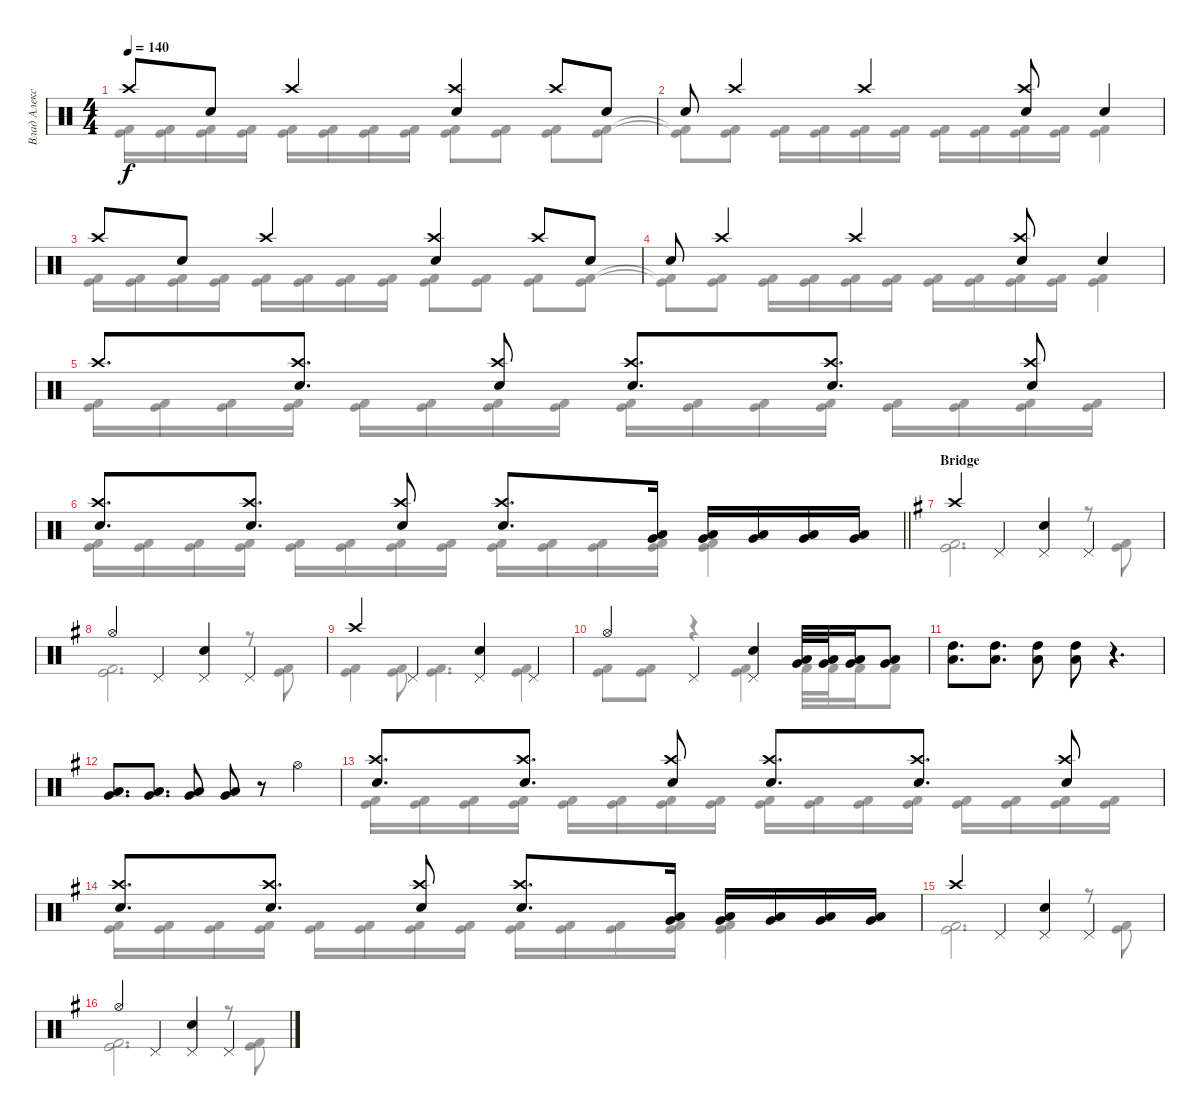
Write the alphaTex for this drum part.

\track ("Влад Алексеенко" "Влад Алекс") {instrument percussion}
\staff {score}
\articulation defaults
\voice
\ts (4 4)
\tempo 140
\clef neutral
\ks c "Crash high (hit)".8{dy f} "Electric Snare (hit)".8 "Crash high (hit)".4
("Electric Snare (hit)" "Crash high (hit)").4 "Crash high (hit)".8 "Electric Snare (hit)".8 |
"Electric Snare (hit)".8 "Crash high (hit)".4 "Crash high (hit)".4 ("Electric Snare (hit)" "Crash high (hit)").8 "Electric Snare (hit)".4 |
"Crash high (hit)".8 "Electric Snare (hit)".8 "Crash high (hit)".4 ("Electric Snare (hit)" "Crash high (hit)").4 "Crash high (hit)".8 "Electric Snare (hit)".8 |
"Electric Snare (hit)".8 "Crash high (hit)".4 "Crash high (hit)".4 ("Electric Snare (hit)" "Crash high (hit)").8 "Electric Snare (hit)".4 |
"Crash high (hit)".8{d} ("Electric Snare (hit)" "Crash high (hit)").8{d} ("Electric Snare (hit)" "Crash high (hit)").8 ("Electric Snare (hit)" "Crash high (hit)").8{d} ("Electric Snare (hit)" "Crash high (hit)").8{d} ("Electric Snare (hit)" "Crash high (hit)").8 |
\barLineRight lightlight
("Electric Snare (hit)" "Crash high (hit)").8{d} ("Electric Snare (hit)" "Crash high (hit)").8{d} ("Electric Snare (hit)" "Crash high (hit)").8 ("Electric Snare (hit)" "Crash high (hit)").8{d} ("Low Tom (hit)" "Very Low Tom (hit)").16 ("Low Tom (hit)" "Very Low Tom (hit)").16 ("Low Tom (hit)" "Very Low Tom (hit)").16 ("Low Tom (hit)" "Very Low Tom (hit)").16 ("Low Tom (hit)" "Very Low Tom (hit)").16 |
\section ("" "Bridge")
\ks g "Crash high (hit)".4 "Pedal Hi-Hat (hit)".4
("Electric Snare (hit)" "Pedal Hi-Hat (hit)").4 "Pedal Hi-Hat (hit)".4 |
"Hi-Hat (open)".4 "Pedal Hi-Hat (hit)".4 ("Electric Snare (hit)" "Pedal Hi-Hat (hit)").4 "Pedal Hi-Hat (hit)".4 |
"Crash high (hit)".4 "Pedal Hi-Hat (hit)".4 ("Electric Snare (hit)" "Pedal Hi-Hat (hit)").4 "Pedal Hi-Hat (hit)".4 |
"Hi-Hat (open)".4 "Pedal Hi-Hat (hit)".4 ("Electric Snare (hit)" "Pedal Hi-Hat (hit)").4 ("Low Tom (hit)" "Very Low Tom (hit)").32 ("Very Low Tom (hit)" "Low Tom (hit)").32 ("Low Tom (hit)" "Very Low Tom (hit)").16 ("Low Tom (hit)" "Very Low Tom (hit)").8 |
("High Tom (hit)" "Low Tom (hit)").8{d} ("High Tom (hit)" "Low Tom (hit)").8{d} ("High Tom (hit)" "Low Tom (hit)").8 ("High Tom (hit)" "Low Tom (hit)").8 r.4{d} |
("Very Low Tom (hit)" "Low Tom (hit)").8{d} ("Very Low Tom (hit)" "Low Tom (hit)").8{d} ("Very Low Tom (hit)" "Low Tom (hit)").8 ("Very Low Tom (hit)" "Low Tom (hit)").8 r.8 "Hi-Hat (open)".4 |
("Electric Snare (hit)" "Crash high (hit)").8{d} ("Electric Snare (hit)" "Crash high (hit)").8{d} ("Electric Snare (hit)" "Crash high (hit)").8 ("Electric Snare (hit)" "Crash high (hit)").8{d} ("Electric Snare (hit)" "Crash high (hit)").8{d} ("Electric Snare (hit)" "Crash high (hit)").8 |
("Electric Snare (hit)" "Crash high (hit)").8{d} ("Electric Snare (hit)" "Crash high (hit)").8{d} ("Electric Snare (hit)" "Crash high (hit)").8 ("Electric Snare (hit)" "Crash high (hit)").8{d} ("Low Tom (hit)" "Very Low Tom (hit)").16 ("Low Tom (hit)" "Very Low Tom (hit)").16 ("Low Tom (hit)" "Very Low Tom (hit)").16 ("Low Tom (hit)" "Very Low Tom (hit)").16 ("Low Tom (hit)" "Very Low Tom (hit)").16 |
"Crash high (hit)".4 "Pedal Hi-Hat (hit)".4 ("Electric Snare (hit)" "Pedal Hi-Hat (hit)").4 "Pedal Hi-Hat (hit)".4 |
"Hi-Hat (open)".4 "Pedal Hi-Hat (hit)".4 ("Electric Snare (hit)" "Pedal Hi-Hat (hit)").4 "Pedal Hi-Hat (hit)".4
\voice
\clef neutral
\ottava regular
\simile none
\ks c
("Kick (hit) 2" "Kick (hit)").16{dy f} ("Kick (hit) 2" "Kick (hit)").16 ("Kick (hit) 2" "Kick (hit)").16 ("Kick (hit) 2" "Kick (hit)").16 ("Kick (hit) 2" "Kick (hit)").16 ("Kick (hit) 2" "Kick (hit)").16 ("Kick (hit) 2" "Kick (hit)").16 ("Kick (hit) 2" "Kick (hit)").16 ("Kick (hit) 2" "Kick (hit)").8 ("Kick (hit) 2" "Kick (hit)").8 ("Kick (hit) 2" "Kick (hit)").8 ("Kick (hit) 2" "Kick (hit)").8 |
("Kick (hit) 2"{t} "Kick (hit)"{t}).8 ("Kick (hit) 2" "Kick (hit)").8 ("Kick (hit) 2" "Kick (hit)").16 ("Kick (hit) 2" "Kick (hit)").16 ("Kick (hit) 2" "Kick (hit)").16 ("Kick (hit) 2" "Kick (hit)").16 ("Kick (hit) 2" "Kick (hit)").16 ("Kick (hit) 2" "Kick (hit)").16 ("Kick (hit) 2" "Kick (hit)").16 ("Kick (hit) 2" "Kick (hit)").16 ("Kick (hit) 2" "Kick (hit)").4 |
("Kick (hit) 2" "Kick (hit)").16 ("Kick (hit) 2" "Kick (hit)").16 ("Kick (hit) 2" "Kick (hit)").16 ("Kick (hit) 2" "Kick (hit)").16 ("Kick (hit) 2" "Kick (hit)").16 ("Kick (hit) 2" "Kick (hit)").16 ("Kick (hit) 2" "Kick (hit)").16 ("Kick (hit) 2" "Kick (hit)").16 ("Kick (hit) 2" "Kick (hit)").8 ("Kick (hit) 2" "Kick (hit)").8 ("Kick (hit) 2" "Kick (hit)").8 ("Kick (hit) 2" "Kick (hit)").8 |
("Kick (hit) 2"{t} "Kick (hit)"{t}).8 ("Kick (hit) 2" "Kick (hit)").8 ("Kick (hit) 2" "Kick (hit)").16 ("Kick (hit) 2" "Kick (hit)").16 ("Kick (hit) 2" "Kick (hit)").16 ("Kick (hit) 2" "Kick (hit)").16 ("Kick (hit) 2" "Kick (hit)").16 ("Kick (hit) 2" "Kick (hit)").16 ("Kick (hit) 2" "Kick (hit)").16 ("Kick (hit) 2" "Kick (hit)").16 ("Kick (hit) 2" "Kick (hit)").4 |
("Kick (hit) 2" "Kick (hit)").16 ("Kick (hit) 2" "Kick (hit)").16 ("Kick (hit) 2" "Kick (hit)").16 ("Kick (hit) 2" "Kick (hit)").16 ("Kick (hit) 2" "Kick (hit)").16 ("Kick (hit) 2" "Kick (hit)").16 ("Kick (hit) 2" "Kick (hit)").16 ("Kick (hit) 2" "Kick (hit)").16 ("Kick (hit) 2" "Kick (hit)").16 ("Kick (hit) 2" "Kick (hit)").16 ("Kick (hit) 2" "Kick (hit)").16 ("Kick (hit) 2" "Kick (hit)").16 ("Kick (hit) 2" "Kick (hit)").16 ("Kick (hit) 2" "Kick (hit)").16 ("Kick (hit) 2" "Kick (hit)").16 ("Kick (hit) 2" "Kick (hit)").16 |
\barLineRight lightlight
("Kick (hit) 2" "Kick (hit)").16 ("Kick (hit) 2" "Kick (hit)").16 ("Kick (hit) 2" "Kick (hit)").16 ("Kick (hit) 2" "Kick (hit)").16 ("Kick (hit) 2" "Kick (hit)").16 ("Kick (hit) 2" "Kick (hit)").16 ("Kick (hit) 2" "Kick (hit)").16 ("Kick (hit) 2" "Kick (hit)").16 ("Kick (hit) 2" "Kick (hit)").16 ("Kick (hit) 2" "Kick (hit)").16 ("Kick (hit) 2" "Kick (hit)").16 ("Kick (hit) 2" "Kick (hit)").16 ("Kick (hit) 2" "Kick (hit)").4 |
\ks g
("Kick (hit) 2" "Kick (hit)").2{d} r.8 ("Kick (hit) 2" "Kick (hit)").8 |
("Kick (hit) 2" "Kick (hit)").2{d} r.8 ("Kick (hit) 2" "Kick (hit)").8 |
("Kick (hit) 2" "Kick (hit)").4 ("Kick (hit) 2" "Kick (hit)").8 ("Kick (hit) 2" "Kick (hit)").4{d} ("Kick (hit) 2" "Kick (hit)").4 |
("Kick (hit) 2" "Kick (hit)").8 ("Kick (hit) 2" "Kick (hit)").8 r.4 ("Kick (hit) 2" "Kick (hit)").4 "Kick (hit) 2".32 "Kick (hit) 2".32 "Kick (hit) 2".16 "Kick (hit) 2".8 |
|
|
("Kick (hit) 2" "Kick (hit)").16 ("Kick (hit) 2" "Kick (hit)").16 ("Kick (hit) 2" "Kick (hit)").16 ("Kick (hit) 2" "Kick (hit)").16 ("Kick (hit) 2" "Kick (hit)").16 ("Kick (hit) 2" "Kick (hit)").16 ("Kick (hit) 2" "Kick (hit)").16 ("Kick (hit) 2" "Kick (hit)").16 ("Kick (hit) 2" "Kick (hit)").16 ("Kick (hit) 2" "Kick (hit)").16 ("Kick (hit) 2" "Kick (hit)").16 ("Kick (hit) 2" "Kick (hit)").16 ("Kick (hit) 2" "Kick (hit)").16 ("Kick (hit) 2" "Kick (hit)").16 ("Kick (hit) 2" "Kick (hit)").16 ("Kick (hit) 2" "Kick (hit)").16 |
("Kick (hit) 2" "Kick (hit)").16 ("Kick (hit) 2" "Kick (hit)").16 ("Kick (hit) 2" "Kick (hit)").16 ("Kick (hit) 2" "Kick (hit)").16 ("Kick (hit) 2" "Kick (hit)").16 ("Kick (hit) 2" "Kick (hit)").16 ("Kick (hit) 2" "Kick (hit)").16 ("Kick (hit) 2" "Kick (hit)").16 ("Kick (hit) 2" "Kick (hit)").16 ("Kick (hit) 2" "Kick (hit)").16 ("Kick (hit) 2" "Kick (hit)").16 ("Kick (hit) 2" "Kick (hit)").16 ("Kick (hit) 2" "Kick (hit)").4 |
("Kick (hit) 2" "Kick (hit)").2{d} r.8 ("Kick (hit) 2" "Kick (hit)").8 |
("Kick (hit) 2" "Kick (hit)").2{d} r.8 ("Kick (hit) 2" "Kick (hit)").8
